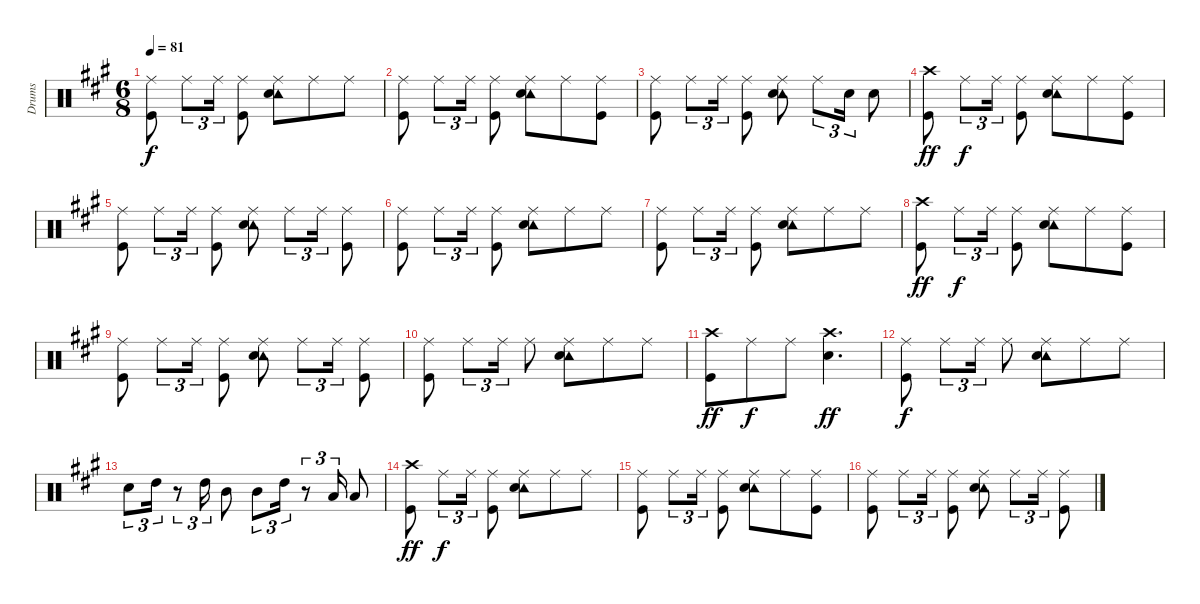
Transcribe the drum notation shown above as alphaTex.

\track ("Drums" "Drums") {instrument percussion}
\staff {score}
\articulation defaults
\ts (6 8)
\tempo 81
\clef neutral
\ks a
("Ride (middle)" "Kick (hit)").8{dy f} "Ride (middle)".8{tu (3 2)} "Ride (middle)".16{tu (3 2)} ("Ride (middle)" "Kick (hit)").8 ("Ride (middle)" "Tambourine (hit)" "Snare (hit) 2").8 "Ride (middle)".8 "Ride (middle)".8 |
("Ride (middle)" "Kick (hit)").8 "Ride (middle)".8{tu (3 2)} "Ride (middle)".16{tu (3 2)} ("Ride (middle)" "Kick (hit)").8 ("Ride (middle)" "Tambourine (hit)" "Snare (hit) 2").8 "Ride (middle)".8 ("Ride (middle)" "Kick (hit)").8 |
("Ride (middle)" "Kick (hit)").8 "Ride (middle)".8{tu (3 2)} "Ride (middle)".16{tu (3 2)} ("Ride (middle)" "Kick (hit)").8 ("Ride (middle)" "Tambourine (hit)" "Snare (hit) 2").8 "Ride (middle)".8{tu (3 2)} "Snare (hit) 2".16{tu (3 2)} "Snare (hit) 2".8 |
("Crash high (hit)" "Kick (hit)").8{dy ff} "Ride (middle)".8{tu (3 2) dy f} "Ride (middle)".16{tu (3 2)} ("Ride (middle)" "Kick (hit)").8 ("Ride (middle)" "Tambourine (hit)" "Snare (hit) 2").8 "Ride (middle)".8 ("Ride (middle)" "Kick (hit)").8 |
("Ride (middle)" "Kick (hit)").8 "Ride (middle)".8{tu (3 2)} "Ride (middle)".16{tu (3 2)} ("Ride (middle)" "Kick (hit)").8 ("Ride (middle)" "Tambourine (hit)" "Snare (hit) 2").8 "Ride (middle)".8{tu (3 2)} "Ride (middle)".16{tu (3 2)} ("Ride (middle)" "Kick (hit)").8 |
("Ride (middle)" "Kick (hit)").8 "Ride (middle)".8{tu (3 2)} "Ride (middle)".16{tu (3 2)} ("Ride (middle)" "Kick (hit)").8 ("Ride (middle)" "Tambourine (hit)" "Snare (hit) 2").8 "Ride (middle)".8 "Ride (middle)".8 |
("Ride (middle)" "Kick (hit)").8 "Ride (middle)".8{tu (3 2)} "Ride (middle)".16{tu (3 2)} ("Ride (middle)" "Kick (hit)").8 ("Ride (middle)" "Tambourine (hit)" "Snare (hit) 2").8 "Ride (middle)".8 "Ride (middle)".8 |
("Crash high (hit)" "Kick (hit)").8{dy ff} "Ride (middle)".8{tu (3 2) dy f} "Ride (middle)".16{tu (3 2)} ("Ride (middle)" "Kick (hit)").8 ("Ride (middle)" "Tambourine (hit)" "Snare (hit) 2").8 "Ride (middle)".8 ("Ride (middle)" "Kick (hit)").8 |
("Ride (middle)" "Kick (hit)").8 "Ride (middle)".8{tu (3 2)} "Ride (middle)".16{tu (3 2)} ("Ride (middle)" "Kick (hit)").8 ("Ride (middle)" "Tambourine (hit)" "Snare (hit) 2").8 "Ride (middle)".8{tu (3 2)} "Ride (middle)".16{tu (3 2)} ("Ride (middle)" "Kick (hit)").8 |
("Ride (middle)" "Kick (hit)").8 "Ride (middle)".8{tu (3 2)} "Ride (middle)".16{tu (3 2)} "Ride (middle)".8 ("Ride (middle)" "Tambourine (hit)" "Snare (hit) 2").8 "Ride (middle)".8 "Ride (middle)".8 |
("Crash high (hit)" "Kick (hit)").8{dy ff} "Ride (middle)".8{dy f} "Ride (middle)".8 ("Crash high (hit)" "Snare (hit) 2").4{d dy ff} |
("Ride (middle)" "Kick (hit)").8{dy f} "Ride (middle)".8{tu (3 2)} "Ride (middle)".16{tu (3 2)} "Ride (middle)".8 ("Ride (middle)" "Tambourine (hit)" "Snare (hit) 2").8 "Ride (middle)".8 "Ride (middle)".8 |
"Snare (hit) 2".8{tu (3 2)} "High Tom (hit)".16{tu (3 2)} r.8{tu (3 2)} "High Tom (hit)".16{tu (3 2)} "Mid Tom (hit)".8 "Mid Tom (hit)".8{tu (3 2)} "High Tom (hit)".16{tu (3 2)} r.8{tu (3 2)} "Low Tom (hit)".16{tu (3 2)} "Low Floor Tom (hit)".8 |
("Crash high (hit)" "Kick (hit)").8{dy ff} "Ride (middle)".8{tu (3 2) dy f} "Ride (middle)".16{tu (3 2)} ("Ride (middle)" "Kick (hit)").8 ("Ride (middle)" "Tambourine (hit)" "Snare (hit) 2").8 "Ride (middle)".8 "Ride (middle)".8 |
("Ride (middle)" "Kick (hit)").8 "Ride (middle)".8{tu (3 2)} "Ride (middle)".16{tu (3 2)} ("Ride (middle)" "Kick (hit)").8 ("Ride (middle)" "Tambourine (hit)" "Snare (hit) 2").8 "Ride (middle)".8 ("Ride (middle)" "Kick (hit)").8 |
("Ride (middle)" "Kick (hit)").8 "Ride (middle)".8{tu (3 2)} "Ride (middle)".16{tu (3 2)} ("Ride (middle)" "Kick (hit)").8 ("Ride (middle)" "Tambourine (hit)" "Snare (hit) 2").8 "Ride (middle)".8{tu (3 2)} "Ride (middle)".16{tu (3 2)} ("Ride (middle)" "Kick (hit)").8
